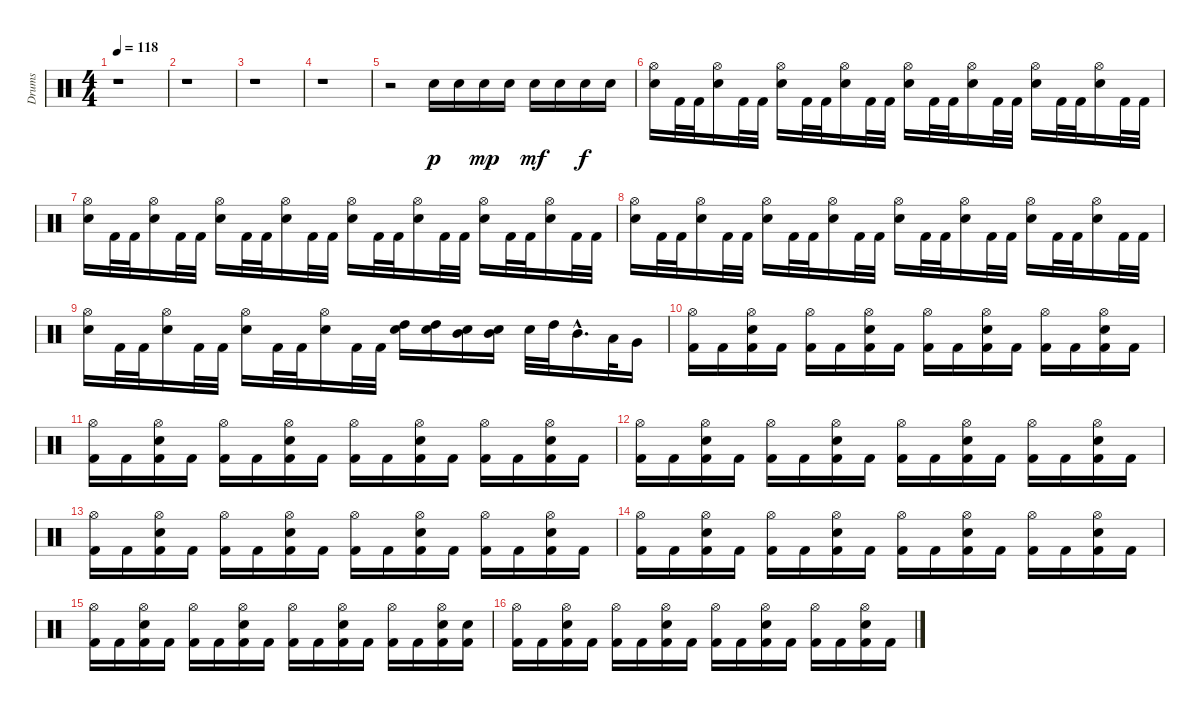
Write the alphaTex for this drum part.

\track ("Drums" "Drums") {instrument percussion}
\staff {score}
\articulation defaults
\ts (4 4)
\tempo 118
\clef neutral
\ks c
r.1{dy p} |
r.1 |
r.1 |
r.1 |
r.2 "Snare (hit) 2".16 "Snare (hit) 2".16 "Snare (hit) 2".16{dy mp} "Snare (hit) 2".16 "Snare (hit) 2".16{dy mf} "Snare (hit) 2".16 "Snare (hit) 2".16{dy f} "Snare (hit) 2".16 |
("Hi-Hat (open)" "Snare (hit) 2").16 "Kick (hit) 2".32 "Kick (hit) 2".32 ("Hi-Hat (open)" "Snare (hit) 2").16 "Kick (hit) 2".32 "Kick (hit) 2".32 ("Hi-Hat (open)" "Snare (hit) 2").16 "Kick (hit) 2".32 "Kick (hit) 2".32 ("Hi-Hat (open)" "Snare (hit) 2").16 "Kick (hit) 2".32 "Kick (hit) 2".32 ("Hi-Hat (open)" "Snare (hit) 2").16 "Kick (hit) 2".32 "Kick (hit) 2".32 ("Hi-Hat (open)" "Snare (hit) 2").16 "Kick (hit) 2".32 "Kick (hit) 2".32 ("Hi-Hat (open)" "Snare (hit) 2").16 "Kick (hit) 2".32 "Kick (hit) 2".32 ("Hi-Hat (open)" "Snare (hit) 2").16 "Kick (hit) 2".32 "Kick (hit) 2".32 |
("Hi-Hat (open)" "Snare (hit) 2").16 "Kick (hit) 2".32 "Kick (hit) 2".32 ("Hi-Hat (open)" "Snare (hit) 2").16 "Kick (hit) 2".32 "Kick (hit) 2".32 ("Hi-Hat (open)" "Snare (hit) 2").16 "Kick (hit) 2".32 "Kick (hit) 2".32 ("Hi-Hat (open)" "Snare (hit) 2").16 "Kick (hit) 2".32 "Kick (hit) 2".32 ("Hi-Hat (open)" "Snare (hit) 2").16 "Kick (hit) 2".32 "Kick (hit) 2".32 ("Hi-Hat (open)" "Snare (hit) 2").16 "Kick (hit) 2".32 "Kick (hit) 2".32 ("Hi-Hat (open)" "Snare (hit) 2").16 "Kick (hit) 2".32 "Kick (hit) 2".32 ("Hi-Hat (open)" "Snare (hit) 2").16 "Kick (hit) 2".32 "Kick (hit) 2".32 |
("Hi-Hat (open)" "Snare (hit) 2").16 "Kick (hit) 2".32 "Kick (hit) 2".32 ("Hi-Hat (open)" "Snare (hit) 2").16 "Kick (hit) 2".32 "Kick (hit) 2".32 ("Hi-Hat (open)" "Snare (hit) 2").16 "Kick (hit) 2".32 "Kick (hit) 2".32 ("Hi-Hat (open)" "Snare (hit) 2").16 "Kick (hit) 2".32 "Kick (hit) 2".32 ("Hi-Hat (open)" "Snare (hit) 2").16 "Kick (hit) 2".32 "Kick (hit) 2".32 ("Hi-Hat (open)" "Snare (hit) 2").16 "Kick (hit) 2".32 "Kick (hit) 2".32 ("Hi-Hat (open)" "Snare (hit) 2").16 "Kick (hit) 2".32 "Kick (hit) 2".32 ("Hi-Hat (open)" "Snare (hit) 2").16 "Kick (hit) 2".32 "Kick (hit) 2".32 |
("Hi-Hat (open)" "Snare (hit) 2").16 "Kick (hit) 2".32 "Kick (hit) 2".32 ("Hi-Hat (open)" "Snare (hit) 2").16 "Kick (hit) 2".32 "Kick (hit) 2".32 ("Hi-Hat (open)" "Snare (hit) 2").16 "Kick (hit) 2".32 "Kick (hit) 2".32 ("Hi-Hat (open)" "Snare (hit) 2").16 "Kick (hit) 2".32 "Kick (hit) 2".32 ("Snare (hit) 2" "High Tom (hit)").16 ("Snare (hit) 2" "High Tom (hit)").16 ("Snare (hit) 2" "Mid Tom (hit)").16 ("Snare (hit) 2" "Mid Tom (hit)").16 "Snare (hit) 2".32 "High Tom (hit)".32 "Mid Tom (hit)"{hac}.16{d} "Low Tom (hit)".32 "Very Low Tom (hit)".16 |
("Hi-Hat (open)" "Kick (hit) 2").16 "Kick (hit) 2".16 ("Hi-Hat (open)" "Snare (hit) 2" "Kick (hit) 2").16 "Kick (hit) 2".16 ("Hi-Hat (open)" "Kick (hit) 2").16 "Kick (hit) 2".16 ("Hi-Hat (open)" "Snare (hit) 2" "Kick (hit) 2").16 "Kick (hit) 2".16 ("Hi-Hat (open)" "Kick (hit) 2").16 "Kick (hit) 2".16 ("Hi-Hat (open)" "Snare (hit) 2" "Kick (hit) 2").16 "Kick (hit) 2".16 ("Hi-Hat (open)" "Kick (hit) 2").16 "Kick (hit) 2".16 ("Hi-Hat (open)" "Snare (hit) 2" "Kick (hit) 2").16 "Kick (hit) 2".16 |
("Hi-Hat (open)" "Kick (hit) 2").16 "Kick (hit) 2".16 ("Hi-Hat (open)" "Snare (hit) 2" "Kick (hit) 2").16 "Kick (hit) 2".16 ("Hi-Hat (open)" "Kick (hit) 2").16 "Kick (hit) 2".16 ("Hi-Hat (open)" "Snare (hit) 2" "Kick (hit) 2").16 "Kick (hit) 2".16 ("Hi-Hat (open)" "Kick (hit) 2").16 "Kick (hit) 2".16 ("Hi-Hat (open)" "Snare (hit) 2" "Kick (hit) 2").16 "Kick (hit) 2".16 ("Hi-Hat (open)" "Kick (hit) 2").16 "Kick (hit) 2".16 ("Hi-Hat (open)" "Snare (hit) 2" "Kick (hit) 2").16 "Kick (hit) 2".16 |
("Hi-Hat (open)" "Kick (hit) 2").16 "Kick (hit) 2".16 ("Hi-Hat (open)" "Snare (hit) 2" "Kick (hit) 2").16 "Kick (hit) 2".16 ("Hi-Hat (open)" "Kick (hit) 2").16 "Kick (hit) 2".16 ("Hi-Hat (open)" "Snare (hit) 2" "Kick (hit) 2").16 "Kick (hit) 2".16 ("Hi-Hat (open)" "Kick (hit) 2").16 "Kick (hit) 2".16 ("Hi-Hat (open)" "Snare (hit) 2" "Kick (hit) 2").16 "Kick (hit) 2".16 ("Hi-Hat (open)" "Kick (hit) 2").16 "Kick (hit) 2".16 ("Hi-Hat (open)" "Snare (hit) 2" "Kick (hit) 2").16 "Kick (hit) 2".16 |
("Hi-Hat (open)" "Kick (hit) 2").16 "Kick (hit) 2".16 ("Hi-Hat (open)" "Snare (hit) 2" "Kick (hit) 2").16 "Kick (hit) 2".16 ("Hi-Hat (open)" "Kick (hit) 2").16 "Kick (hit) 2".16 ("Hi-Hat (open)" "Snare (hit) 2" "Kick (hit) 2").16 "Kick (hit) 2".16 ("Hi-Hat (open)" "Kick (hit) 2").16 "Kick (hit) 2".16 ("Hi-Hat (open)" "Snare (hit) 2" "Kick (hit) 2").16 "Kick (hit) 2".16 ("Hi-Hat (open)" "Kick (hit) 2").16 "Kick (hit) 2".16 ("Hi-Hat (open)" "Snare (hit) 2" "Kick (hit) 2").16 "Kick (hit) 2".16 |
("Hi-Hat (open)" "Kick (hit) 2").16 "Kick (hit) 2".16 ("Hi-Hat (open)" "Snare (hit) 2" "Kick (hit) 2").16 "Kick (hit) 2".16 ("Hi-Hat (open)" "Kick (hit) 2").16 "Kick (hit) 2".16 ("Hi-Hat (open)" "Snare (hit) 2" "Kick (hit) 2").16 "Kick (hit) 2".16 ("Hi-Hat (open)" "Kick (hit) 2").16 "Kick (hit) 2".16 ("Hi-Hat (open)" "Snare (hit) 2" "Kick (hit) 2").16 "Kick (hit) 2".16 ("Hi-Hat (open)" "Kick (hit) 2").16 "Kick (hit) 2".16 ("Hi-Hat (open)" "Snare (hit) 2" "Kick (hit) 2").16 "Kick (hit) 2".16 |
("Hi-Hat (open)" "Kick (hit) 2").16 "Kick (hit) 2".16 ("Hi-Hat (open)" "Snare (hit) 2" "Kick (hit) 2").16 "Kick (hit) 2".16 ("Hi-Hat (open)" "Kick (hit) 2").16 "Kick (hit) 2".16 ("Hi-Hat (open)" "Snare (hit) 2" "Kick (hit) 2").16 "Kick (hit) 2".16 ("Hi-Hat (open)" "Kick (hit) 2").16 "Kick (hit) 2".16 ("Hi-Hat (open)" "Snare (hit) 2" "Kick (hit) 2").16 "Kick (hit) 2".16 ("Hi-Hat (open)" "Kick (hit) 2").16 "Kick (hit) 2".16 ("Hi-Hat (open)" "Snare (hit) 2" "Kick (hit) 2").16 ("Snare (hit) 2" "Kick (hit) 2").16 |
("Hi-Hat (open)" "Kick (hit) 2").16 "Kick (hit) 2".16 ("Hi-Hat (open)" "Snare (hit) 2" "Kick (hit) 2").16 "Kick (hit) 2".16 ("Hi-Hat (open)" "Kick (hit) 2").16 "Kick (hit) 2".16 ("Hi-Hat (open)" "Snare (hit) 2" "Kick (hit) 2").16 "Kick (hit) 2".16 ("Hi-Hat (open)" "Kick (hit) 2").16 "Kick (hit) 2".16 ("Hi-Hat (open)" "Snare (hit) 2" "Kick (hit) 2").16 "Kick (hit) 2".16 ("Hi-Hat (open)" "Kick (hit) 2").16 "Kick (hit) 2".16 ("Hi-Hat (open)" "Snare (hit) 2" "Kick (hit) 2").16 "Kick (hit) 2".16
